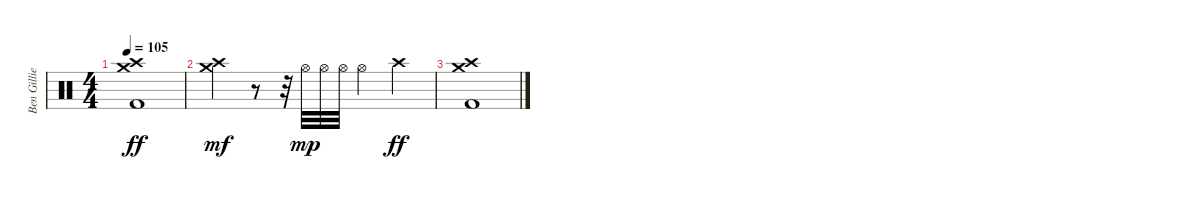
\track ("Ben Gillies" "Ben Gillie") {instrument percussion}
\staff {score}
\articulation defaults
\ts (4 4)
\tempo 105
\clef neutral
\ks c
("Crash high (hit)" "Crash medium (hit)" "Kick (hit) 2").1{dy ff} |
("Crash high (hit)" "Crash medium (hit)").4{dy mf} r.8 r.32 "Hi-Hat (open)".32{dy mp} "Hi-Hat (open)".32 "Hi-Hat (open)".32 "Hi-Hat (open)".4 "Crash high (hit)".4{dy ff} |
("Crash high (hit)" "Crash medium (hit)" "Kick (hit) 2").1
